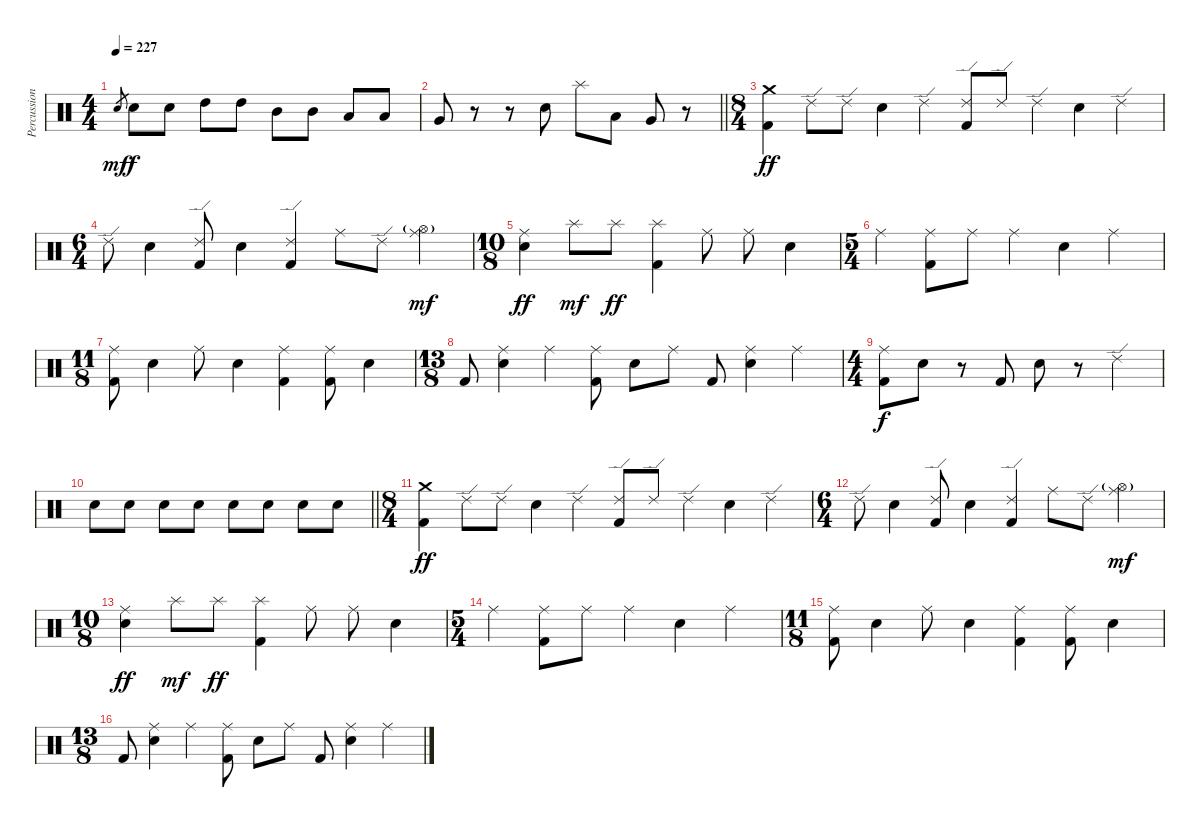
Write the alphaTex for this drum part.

\track ("Percussion" "Percussion") {instrument percussion}
\staff {score}
\articulation defaults
\ts (4 4)
\tempo 227
\clef neutral
\ks c "Electric Snare (hit)".8{gr dy mf} "Electric Snare (hit)".8{dy f} "Electric Snare (hit)".8 "High Tom (hit)".8 "High Tom (hit)".8 "Mid Tom (hit)".8 "Mid Tom (hit)".8 "Low Tom (hit)".8 "Low Tom (hit)".8
|
\barLineRight lightlight "Very Low Tom (hit)".8
r.8 r.8 "Electric Snare (hit)".8 "Splash (hit)".8 "Low Tom (hit)".8 "Very Low Tom (hit)".8 r.8 |
\ts (8 4)
\section ("" "")
("Crash medium (hit)" "Kick (hit) 2").4{dy ff} "Ride (edge) 2".8 "Ride (edge) 2".8 "Electric Snare (hit)".4 "Ride (edge) 2".4 ("Ride (edge) 2" "Kick (hit) 2").8 "Ride (edge) 2".8 "Ride (edge) 2".4 "Electric Snare (hit)".4 "Ride (edge) 2".4 |
\ts (6 4)
"Ride (edge) 2".8 "Electric Snare (hit)".4 ("Ride (edge) 2" "Kick (hit) 2").8 "Electric Snare (hit)".4 ("Ride (edge) 2" "Kick (hit) 2").4 "Ride (middle)".8 "Ride (edge) 2".8 ("Ride (middle)" "Hi-Hat (open)"{g}).4{dy mf} |
\ts (10 8)
("Ride (middle)" "Electric Snare (hit)").4{dy ff} "Splash (hit)".8{dy mf} "Splash (hit)".8{dy ff} ("Splash (hit)" "Kick (hit) 2").4 "Ride (middle)".8 "Ride (middle)".8 "Electric Snare (hit)".4 |
\ts (5 4)
"Ride (middle)".4 ("Ride (middle)" "Kick (hit) 2").8 "Ride (middle)".8 "Ride (middle)".4 "Electric Snare (hit)".4 "Ride (middle)".4 |
\ts (11 8)
("Ride (middle)" "Kick (hit) 2").8 "Electric Snare (hit)".4 "Ride (middle)".8 "Electric Snare (hit)".4 ("Ride (middle)" "Kick (hit) 2").4 ("Ride (middle)" "Kick (hit) 2").8 "Electric Snare (hit)".4 |
\ts (13 8)
"Kick (hit) 2".8 ("Ride (middle)" "Electric Snare (hit)").4 "Ride (middle)".4 ("Ride (middle)" "Kick (hit) 2").8 "Electric Snare (hit)".8 "Ride (middle)".8 "Kick (hit) 2".8 ("Ride (middle)" "Electric Snare (hit)").4 "Ride (middle)".4 |
\ts (4 4)
("Ride (middle)" "Kick (hit) 2").8{dy f} "Electric Snare (hit)".8 r.8 "Kick (hit) 2".8 "Electric Snare (hit)".8 r.8 "Ride (edge) 2".4 |
\barLineRight lightlight "Electric Snare (hit)".8 "Electric Snare (hit)".8 "Electric Snare (hit)".8 "Electric Snare (hit)".8 "Electric Snare (hit)".8 "Electric Snare (hit)".8 "Electric Snare (hit)".8 "Electric Snare (hit)".8
|
\ts (8 4)
\section ("" "")
("Crash medium (hit)" "Kick (hit) 2").4{dy ff} "Ride (edge) 2".8 "Ride (edge) 2".8 "Electric Snare (hit)".4 "Ride (edge) 2".4 ("Ride (edge) 2" "Kick (hit) 2").8 "Ride (edge) 2".8 "Ride (edge) 2".4 "Electric Snare (hit)".4 "Ride (edge) 2".4 |
\ts (6 4)
"Ride (edge) 2".8 "Electric Snare (hit)".4 ("Ride (edge) 2" "Kick (hit) 2").8 "Electric Snare (hit)".4 ("Ride (edge) 2" "Kick (hit) 2").4 "Ride (middle)".8 "Ride (edge) 2".8 ("Ride (middle)" "Hi-Hat (open)"{g}).4{dy mf} |
\ts (10 8)
("Ride (middle)" "Electric Snare (hit)").4{dy ff} "Splash (hit)".8{dy mf} "Splash (hit)".8{dy ff} ("Splash (hit)" "Kick (hit) 2").4 "Ride (middle)".8 "Ride (middle)".8 "Electric Snare (hit)".4 |
\ts (5 4)
"Ride (middle)".4 ("Ride (middle)" "Kick (hit) 2").8 "Ride (middle)".8 "Ride (middle)".4 "Electric Snare (hit)".4 "Ride (middle)".4 |
\ts (11 8)
("Ride (middle)" "Kick (hit) 2").8 "Electric Snare (hit)".4 "Ride (middle)".8 "Electric Snare (hit)".4 ("Ride (middle)" "Kick (hit) 2").4 ("Ride (middle)" "Kick (hit) 2").8 "Electric Snare (hit)".4 |
\ts (13 8)
"Kick (hit) 2".8 ("Ride (middle)" "Electric Snare (hit)").4 "Ride (middle)".4 ("Ride (middle)" "Kick (hit) 2").8 "Electric Snare (hit)".8 "Ride (middle)".8 "Kick (hit) 2".8 ("Ride (middle)" "Electric Snare (hit)").4 "Ride (middle)".4
